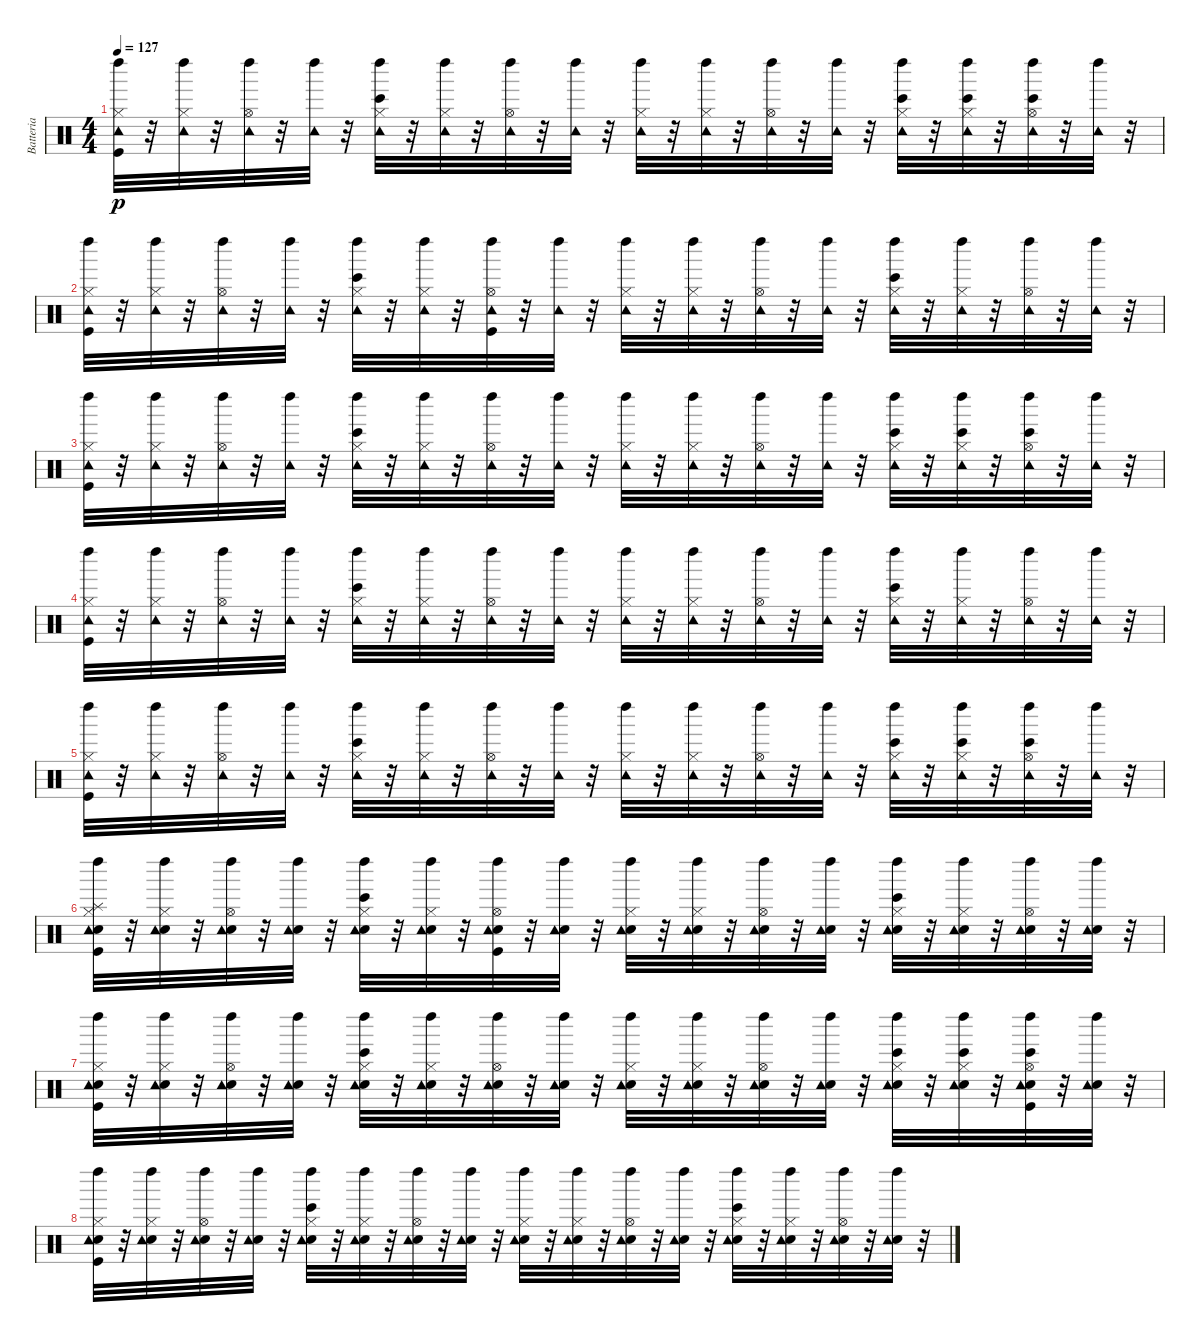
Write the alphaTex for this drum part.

\track ("Batteria" "Batteria") {instrument percussion}
\staff {score}
\articulation defaults
\ts (4 4)
\tempo 127
\clef neutral
\ks c
("Kick (hit)" "Hi-Hat (closed)" "Tambourine (hit)" "Left Maraca (hit)").32{dy p} r.32 ("Hi-Hat (closed)" "Tambourine (hit)" "Left Maraca (hit)").32 r.32 ("Hi-Hat (open)" "Tambourine (hit)" "Left Maraca (hit)").32 r.32 ("Tambourine (hit)" "Left Maraca (hit)").32 r.32 ("Bongo High (hit)" "Hi-Hat (closed)" "Tambourine (hit)" "Left Maraca (hit)").32 r.32 ("Hi-Hat (closed)" "Tambourine (hit)" "Left Maraca (hit)").32 r.32 ("Hi-Hat (open)" "Tambourine (hit)" "Left Maraca (hit)").32 r.32 ("Tambourine (hit)" "Left Maraca (hit)").32 r.32 ("Hi-Hat (closed)" "Tambourine (hit)" "Left Maraca (hit)").32 r.32 ("Hi-Hat (closed)" "Tambourine (hit)" "Left Maraca (hit)").32 r.32 ("Hi-Hat (open)" "Tambourine (hit)" "Left Maraca (hit)").32 r.32 ("Tambourine (hit)" "Left Maraca (hit)").32 r.32 ("Bongo High (hit)" "Hi-Hat (closed)" "Tambourine (hit)" "Left Maraca (hit)").32 r.32 ("Bongo High (hit)" "Hi-Hat (closed)" "Tambourine (hit)" "Left Maraca (hit)").32 r.32 ("Bongo High (hit)" "Hi-Hat (open)" "Tambourine (hit)" "Left Maraca (hit)").32 r.32 ("Tambourine (hit)" "Left Maraca (hit)").32 r.32 |
("Kick (hit)" "Hi-Hat (closed)" "Tambourine (hit)" "Left Maraca (hit)").32 r.32 ("Hi-Hat (closed)" "Tambourine (hit)" "Left Maraca (hit)").32 r.32 ("Hi-Hat (open)" "Tambourine (hit)" "Left Maraca (hit)").32 r.32 ("Tambourine (hit)" "Left Maraca (hit)").32 r.32 ("Bongo High (hit)" "Hi-Hat (closed)" "Tambourine (hit)" "Left Maraca (hit)").32 r.32 ("Hi-Hat (closed)" "Tambourine (hit)" "Left Maraca (hit)").32 r.32 ("Kick (hit)" "Hi-Hat (open)" "Tambourine (hit)" "Left Maraca (hit)").32 r.32 ("Tambourine (hit)" "Left Maraca (hit)").32 r.32 ("Hi-Hat (closed)" "Tambourine (hit)" "Left Maraca (hit)").32 r.32 ("Hi-Hat (closed)" "Tambourine (hit)" "Left Maraca (hit)").32 r.32 ("Hi-Hat (open)" "Tambourine (hit)" "Left Maraca (hit)").32 r.32 ("Tambourine (hit)" "Left Maraca (hit)").32 r.32 ("Bongo High (hit)" "Hi-Hat (closed)" "Tambourine (hit)" "Left Maraca (hit)").32 r.32 ("Hi-Hat (closed)" "Tambourine (hit)" "Left Maraca (hit)").32 r.32 ("Hi-Hat (open)" "Tambourine (hit)" "Left Maraca (hit)").32 r.32 ("Tambourine (hit)" "Left Maraca (hit)").32 r.32 |
("Kick (hit)" "Hi-Hat (closed)" "Tambourine (hit)" "Left Maraca (hit)").32 r.32 ("Hi-Hat (closed)" "Tambourine (hit)" "Left Maraca (hit)").32 r.32 ("Hi-Hat (open)" "Tambourine (hit)" "Left Maraca (hit)").32 r.32 ("Tambourine (hit)" "Left Maraca (hit)").32 r.32 ("Bongo High (hit)" "Hi-Hat (closed)" "Tambourine (hit)" "Left Maraca (hit)").32 r.32 ("Hi-Hat (closed)" "Tambourine (hit)" "Left Maraca (hit)").32 r.32 ("Hi-Hat (open)" "Tambourine (hit)" "Left Maraca (hit)").32 r.32 ("Tambourine (hit)" "Left Maraca (hit)").32 r.32 ("Hi-Hat (closed)" "Tambourine (hit)" "Left Maraca (hit)").32 r.32 ("Hi-Hat (closed)" "Tambourine (hit)" "Left Maraca (hit)").32 r.32 ("Hi-Hat (open)" "Tambourine (hit)" "Left Maraca (hit)").32 r.32 ("Tambourine (hit)" "Left Maraca (hit)").32 r.32 ("Bongo High (hit)" "Hi-Hat (closed)" "Tambourine (hit)" "Left Maraca (hit)").32 r.32 ("Bongo High (hit)" "Hi-Hat (closed)" "Tambourine (hit)" "Left Maraca (hit)").32 r.32 ("Bongo High (hit)" "Hi-Hat (open)" "Tambourine (hit)" "Left Maraca (hit)").32 r.32 ("Tambourine (hit)" "Left Maraca (hit)").32 r.32 |
("Kick (hit)" "Hi-Hat (closed)" "Tambourine (hit)" "Left Maraca (hit)").32 r.32 ("Hi-Hat (closed)" "Tambourine (hit)" "Left Maraca (hit)").32 r.32 ("Hi-Hat (open)" "Tambourine (hit)" "Left Maraca (hit)").32 r.32 ("Tambourine (hit)" "Left Maraca (hit)").32 r.32 ("Bongo High (hit)" "Hi-Hat (closed)" "Tambourine (hit)" "Left Maraca (hit)").32 r.32 ("Hi-Hat (closed)" "Tambourine (hit)" "Left Maraca (hit)").32 r.32 ("Hi-Hat (open)" "Tambourine (hit)" "Left Maraca (hit)").32 r.32 ("Tambourine (hit)" "Left Maraca (hit)").32 r.32 ("Hi-Hat (closed)" "Tambourine (hit)" "Left Maraca (hit)").32 r.32 ("Hi-Hat (closed)" "Tambourine (hit)" "Left Maraca (hit)").32 r.32 ("Hi-Hat (open)" "Tambourine (hit)" "Left Maraca (hit)").32 r.32 ("Tambourine (hit)" "Left Maraca (hit)").32 r.32 ("Bongo High (hit)" "Hi-Hat (closed)" "Tambourine (hit)" "Left Maraca (hit)").32 r.32 ("Hi-Hat (closed)" "Tambourine (hit)" "Left Maraca (hit)").32 r.32 ("Hi-Hat (open)" "Tambourine (hit)" "Left Maraca (hit)").32 r.32 ("Tambourine (hit)" "Left Maraca (hit)").32 r.32 |
("Kick (hit)" "Hi-Hat (closed)" "Tambourine (hit)" "Left Maraca (hit)").32 r.32 ("Hi-Hat (closed)" "Tambourine (hit)" "Left Maraca (hit)").32 r.32 ("Hi-Hat (open)" "Tambourine (hit)" "Left Maraca (hit)").32 r.32 ("Tambourine (hit)" "Left Maraca (hit)").32 r.32 ("Bongo High (hit)" "Hi-Hat (closed)" "Tambourine (hit)" "Left Maraca (hit)").32 r.32 ("Hi-Hat (closed)" "Tambourine (hit)" "Left Maraca (hit)").32 r.32 ("Hi-Hat (open)" "Tambourine (hit)" "Left Maraca (hit)").32 r.32 ("Tambourine (hit)" "Left Maraca (hit)").32 r.32 ("Hi-Hat (closed)" "Tambourine (hit)" "Left Maraca (hit)").32 r.32 ("Hi-Hat (closed)" "Tambourine (hit)" "Left Maraca (hit)").32 r.32 ("Hi-Hat (open)" "Tambourine (hit)" "Left Maraca (hit)").32 r.32 ("Tambourine (hit)" "Left Maraca (hit)").32 r.32 ("Bongo High (hit)" "Hi-Hat (closed)" "Tambourine (hit)" "Left Maraca (hit)").32 r.32 ("Bongo High (hit)" "Hi-Hat (closed)" "Tambourine (hit)" "Left Maraca (hit)").32 r.32 ("Bongo High (hit)" "Hi-Hat (open)" "Tambourine (hit)" "Left Maraca (hit)").32 r.32 ("Tambourine (hit)" "Left Maraca (hit)").32 r.32 |
("Kick (hit)" "Electric Snare (hit)" "Hi-Hat (closed)" "Tambourine (hit)" "Splash (hit)" "Left Maraca (hit)").32 r.32 ("Electric Snare (hit)" "Hi-Hat (closed)" "Tambourine (hit)" "Left Maraca (hit)").32 r.32 ("Electric Snare (hit)" "Hi-Hat (open)" "Tambourine (hit)" "Left Maraca (hit)").32 r.32 ("Electric Snare (hit)" "Tambourine (hit)" "Left Maraca (hit)").32 r.32 ("Bongo High (hit)" "Electric Snare (hit)" "Hi-Hat (closed)" "Tambourine (hit)" "Left Maraca (hit)").32 r.32 ("Electric Snare (hit)" "Hi-Hat (closed)" "Tambourine (hit)" "Left Maraca (hit)").32 r.32 ("Kick (hit)" "Electric Snare (hit)" "Hi-Hat (open)" "Tambourine (hit)" "Left Maraca (hit)").32 r.32 ("Electric Snare (hit)" "Tambourine (hit)" "Left Maraca (hit)").32 r.32 ("Electric Snare (hit)" "Hi-Hat (closed)" "Tambourine (hit)" "Left Maraca (hit)").32 r.32 ("Electric Snare (hit)" "Hi-Hat (closed)" "Tambourine (hit)" "Left Maraca (hit)").32 r.32 ("Electric Snare (hit)" "Hi-Hat (open)" "Tambourine (hit)" "Left Maraca (hit)").32 r.32 ("Electric Snare (hit)" "Tambourine (hit)" "Left Maraca (hit)").32 r.32 ("Bongo High (hit)" "Electric Snare (hit)" "Hi-Hat (closed)" "Tambourine (hit)" "Left Maraca (hit)").32 r.32 ("Electric Snare (hit)" "Hi-Hat (closed)" "Tambourine (hit)" "Left Maraca (hit)").32 r.32 ("Electric Snare (hit)" "Hi-Hat (open)" "Tambourine (hit)" "Left Maraca (hit)").32 r.32 ("Electric Snare (hit)" "Tambourine (hit)" "Left Maraca (hit)").32 r.32 |
("Kick (hit)" "Electric Snare (hit)" "Hi-Hat (closed)" "Tambourine (hit)" "Left Maraca (hit)").32 r.32 ("Electric Snare (hit)" "Hi-Hat (closed)" "Tambourine (hit)" "Left Maraca (hit)").32 r.32 ("Electric Snare (hit)" "Hi-Hat (open)" "Tambourine (hit)" "Left Maraca (hit)").32 r.32 ("Electric Snare (hit)" "Tambourine (hit)" "Left Maraca (hit)").32 r.32 ("Bongo High (hit)" "Electric Snare (hit)" "Hi-Hat (closed)" "Tambourine (hit)" "Left Maraca (hit)").32 r.32 ("Electric Snare (hit)" "Hi-Hat (closed)" "Tambourine (hit)" "Left Maraca (hit)").32 r.32 ("Electric Snare (hit)" "Hi-Hat (open)" "Tambourine (hit)" "Left Maraca (hit)").32 r.32 ("Electric Snare (hit)" "Tambourine (hit)" "Left Maraca (hit)").32 r.32 ("Electric Snare (hit)" "Hi-Hat (closed)" "Tambourine (hit)" "Left Maraca (hit)").32 r.32 ("Electric Snare (hit)" "Hi-Hat (closed)" "Tambourine (hit)" "Left Maraca (hit)").32 r.32 ("Electric Snare (hit)" "Hi-Hat (open)" "Tambourine (hit)" "Left Maraca (hit)").32 r.32 ("Electric Snare (hit)" "Tambourine (hit)" "Left Maraca (hit)").32 r.32 ("Bongo High (hit)" "Electric Snare (hit)" "Hi-Hat (closed)" "Tambourine (hit)" "Left Maraca (hit)").32 r.32 ("Bongo High (hit)" "Electric Snare (hit)" "Hi-Hat (closed)" "Tambourine (hit)" "Left Maraca (hit)").32 r.32 ("Bongo High (hit)" "Kick (hit)" "Electric Snare (hit)" "Hi-Hat (open)" "Tambourine (hit)" "Left Maraca (hit)").32 r.32 ("Electric Snare (hit)" "Tambourine (hit)" "Left Maraca (hit)").32 r.32 |
("Kick (hit)" "Electric Snare (hit)" "Hi-Hat (closed)" "Tambourine (hit)" "Left Maraca (hit)").32 r.32 ("Electric Snare (hit)" "Hi-Hat (closed)" "Tambourine (hit)" "Left Maraca (hit)").32 r.32 ("Electric Snare (hit)" "Hi-Hat (open)" "Tambourine (hit)" "Left Maraca (hit)").32 r.32 ("Electric Snare (hit)" "Tambourine (hit)" "Left Maraca (hit)").32 r.32 ("Bongo High (hit)" "Electric Snare (hit)" "Hi-Hat (closed)" "Tambourine (hit)" "Left Maraca (hit)").32 r.32 ("Electric Snare (hit)" "Hi-Hat (closed)" "Tambourine (hit)" "Left Maraca (hit)").32 r.32 ("Electric Snare (hit)" "Hi-Hat (open)" "Tambourine (hit)" "Left Maraca (hit)").32 r.32 ("Electric Snare (hit)" "Tambourine (hit)" "Left Maraca (hit)").32 r.32 ("Electric Snare (hit)" "Hi-Hat (closed)" "Tambourine (hit)" "Left Maraca (hit)").32 r.32 ("Electric Snare (hit)" "Hi-Hat (closed)" "Tambourine (hit)" "Left Maraca (hit)").32 r.32 ("Electric Snare (hit)" "Hi-Hat (open)" "Tambourine (hit)" "Left Maraca (hit)").32 r.32 ("Electric Snare (hit)" "Tambourine (hit)" "Left Maraca (hit)").32 r.32 ("Bongo High (hit)" "Electric Snare (hit)" "Hi-Hat (closed)" "Tambourine (hit)" "Left Maraca (hit)").32 r.32 ("Electric Snare (hit)" "Hi-Hat (closed)" "Tambourine (hit)" "Left Maraca (hit)").32 r.32 ("Electric Snare (hit)" "Hi-Hat (open)" "Tambourine (hit)" "Left Maraca (hit)").32 r.32 ("Electric Snare (hit)" "Tambourine (hit)" "Left Maraca (hit)").32 r.32
